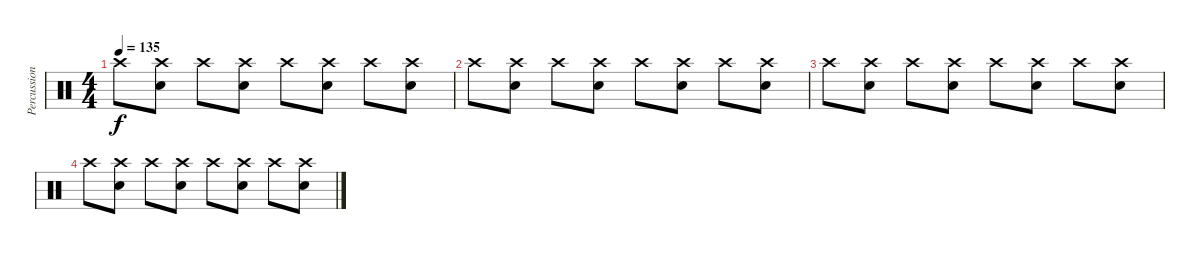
\track ("Percussion" "Percussion") {instrument percussion}
\staff {score}
\articulation defaults
\ts (4 4)
\tempo 135
\clef neutral
\ks c "Crash high (hit)".8{dy f}
("Crash high (hit)" "Electric Snare (hit)").8 "Crash high (hit)".8 ("Crash high (hit)" "Electric Snare (hit)").8 "Crash high (hit)".8 ("Crash high (hit)" "Electric Snare (hit)").8 "Crash high (hit)".8 ("Crash high (hit)" "Electric Snare (hit)").8 |
"Crash high (hit)".8 ("Crash high (hit)" "Electric Snare (hit)").8 "Crash high (hit)".8 ("Crash high (hit)" "Electric Snare (hit)").8 "Crash high (hit)".8 ("Crash high (hit)" "Electric Snare (hit)").8 "Crash high (hit)".8 ("Crash high (hit)" "Electric Snare (hit)").8 |
"Crash high (hit)".8 ("Crash high (hit)" "Electric Snare (hit)").8 "Crash high (hit)".8 ("Crash high (hit)" "Electric Snare (hit)").8 "Crash high (hit)".8 ("Crash high (hit)" "Electric Snare (hit)").8 "Crash high (hit)".8 ("Crash high (hit)" "Electric Snare (hit)").8 |
"Crash high (hit)".8 ("Crash high (hit)" "Electric Snare (hit)").8 "Crash high (hit)".8 ("Crash high (hit)" "Electric Snare (hit)").8 "Crash high (hit)".8 ("Crash high (hit)" "Electric Snare (hit)").8 "Crash high (hit)".8 ("Crash high (hit)" "Electric Snare (hit)").8
